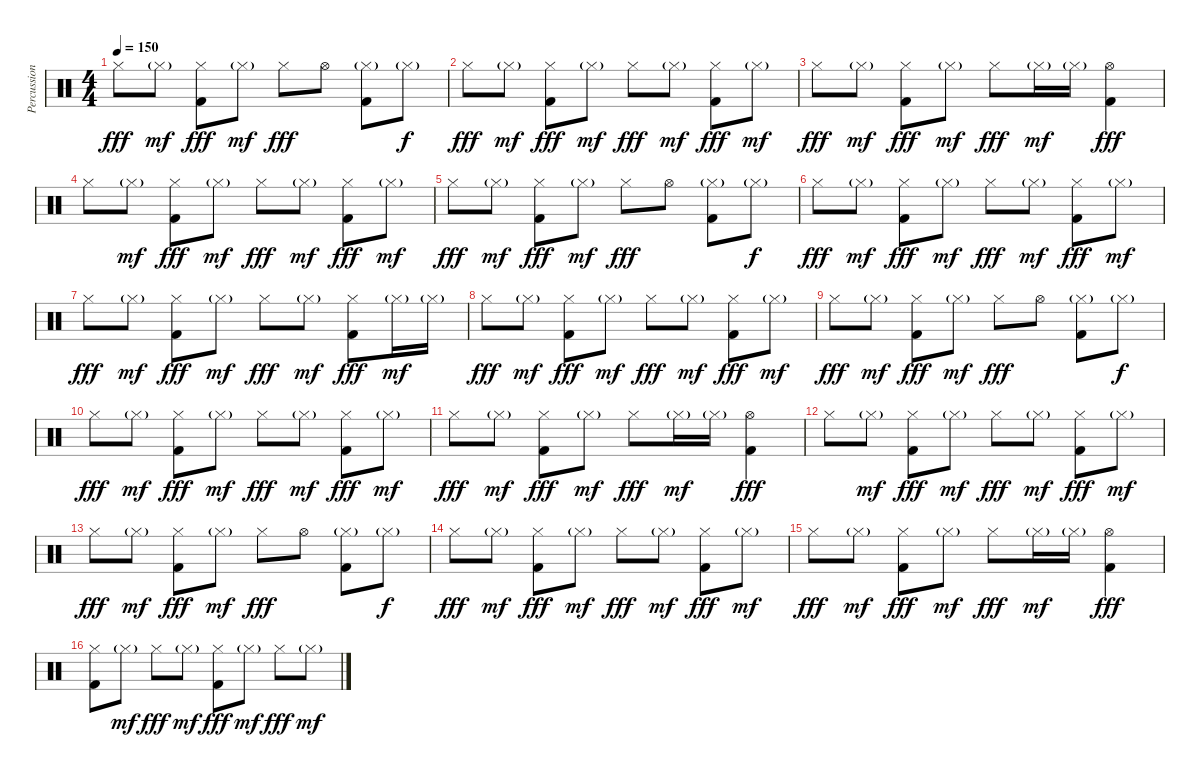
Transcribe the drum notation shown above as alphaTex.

\track ("Percussion" "Percussion") {instrument percussion}
\staff {score}
\articulation defaults
\ts (4 4)
\tempo 150
\clef neutral
\ks c "Hi-Hat (closed)".8{dy fff} "Hi-Hat (closed)"{g}.8{dy mf}
("Hi-Hat (closed)" "Kick (hit) 2").8{dy fff} "Hi-Hat (closed)"{g}.8{dy mf} "Hi-Hat (closed)".8{dy fff} "Hi-Hat (open)".8 ("Hi-Hat (closed)"{g} "Kick (hit) 2").8 "Hi-Hat (closed)"{g}.8{dy f} |
"Hi-Hat (closed)".8{dy fff} "Hi-Hat (closed)"{g}.8{dy mf} ("Hi-Hat (closed)" "Kick (hit) 2").8{dy fff} "Hi-Hat (closed)"{g}.8{dy mf} "Hi-Hat (closed)".8{dy fff} "Hi-Hat (closed)"{g}.8{dy mf} ("Hi-Hat (closed)" "Kick (hit) 2").8{dy fff} "Hi-Hat (closed)"{g}.8{dy mf} |
"Hi-Hat (closed)".8{dy fff} "Hi-Hat (closed)"{g}.8{dy mf} ("Hi-Hat (closed)" "Kick (hit) 2").8{dy fff} "Hi-Hat (closed)"{g}.8{dy mf} "Hi-Hat (closed)".8{dy fff} "Hi-Hat (closed)"{g}.16{dy mf} "Hi-Hat (closed)"{g}.16 ("Hi-Hat (open)" "Kick (hit) 2").4{dy fff} |
"Hi-Hat (closed)".8 "Hi-Hat (closed)"{g}.8{dy mf} ("Hi-Hat (closed)" "Kick (hit) 2").8{dy fff} "Hi-Hat (closed)"{g}.8{dy mf} "Hi-Hat (closed)".8{dy fff} "Hi-Hat (closed)"{g}.8{dy mf} ("Hi-Hat (closed)" "Kick (hit) 2").8{dy fff} "Hi-Hat (closed)"{g}.8{dy mf} |
"Hi-Hat (closed)".8{dy fff} "Hi-Hat (closed)"{g}.8{dy mf} ("Hi-Hat (closed)" "Kick (hit) 2").8{dy fff} "Hi-Hat (closed)"{g}.8{dy mf} "Hi-Hat (closed)".8{dy fff} "Hi-Hat (open)".8 ("Hi-Hat (closed)"{g} "Kick (hit) 2").8 "Hi-Hat (closed)"{g}.8{dy f} |
"Hi-Hat (closed)".8{dy fff} "Hi-Hat (closed)"{g}.8{dy mf} ("Hi-Hat (closed)" "Kick (hit) 2").8{dy fff} "Hi-Hat (closed)"{g}.8{dy mf} "Hi-Hat (closed)".8{dy fff} "Hi-Hat (closed)"{g}.8{dy mf} ("Hi-Hat (closed)" "Kick (hit) 2").8{dy fff} "Hi-Hat (closed)"{g}.8{dy mf} |
"Hi-Hat (closed)".8{dy fff} "Hi-Hat (closed)"{g}.8{dy mf} ("Hi-Hat (closed)" "Kick (hit) 2").8{dy fff} "Hi-Hat (closed)"{g}.8{dy mf} "Hi-Hat (closed)".8{dy fff} "Hi-Hat (closed)"{g}.8{dy mf} ("Hi-Hat (closed)" "Kick (hit) 2").8{dy fff} "Hi-Hat (closed)"{g}.16{dy mf} "Hi-Hat (closed)"{g}.16 |
"Hi-Hat (closed)".8{dy fff} "Hi-Hat (closed)"{g}.8{dy mf} ("Hi-Hat (closed)" "Kick (hit) 2").8{dy fff} "Hi-Hat (closed)"{g}.8{dy mf} "Hi-Hat (closed)".8{dy fff} "Hi-Hat (closed)"{g}.8{dy mf} ("Hi-Hat (closed)" "Kick (hit) 2").8{dy fff} "Hi-Hat (closed)"{g}.8{dy mf} |
"Hi-Hat (closed)".8{dy fff} "Hi-Hat (closed)"{g}.8{dy mf} ("Hi-Hat (closed)" "Kick (hit) 2").8{dy fff} "Hi-Hat (closed)"{g}.8{dy mf} "Hi-Hat (closed)".8{dy fff} "Hi-Hat (open)".8 ("Hi-Hat (closed)"{g} "Kick (hit) 2").8 "Hi-Hat (closed)"{g}.8{dy f} |
"Hi-Hat (closed)".8{dy fff} "Hi-Hat (closed)"{g}.8{dy mf} ("Hi-Hat (closed)" "Kick (hit) 2").8{dy fff} "Hi-Hat (closed)"{g}.8{dy mf} "Hi-Hat (closed)".8{dy fff} "Hi-Hat (closed)"{g}.8{dy mf} ("Hi-Hat (closed)" "Kick (hit) 2").8{dy fff} "Hi-Hat (closed)"{g}.8{dy mf} |
"Hi-Hat (closed)".8{dy fff} "Hi-Hat (closed)"{g}.8{dy mf} ("Hi-Hat (closed)" "Kick (hit) 2").8{dy fff} "Hi-Hat (closed)"{g}.8{dy mf} "Hi-Hat (closed)".8{dy fff} "Hi-Hat (closed)"{g}.16{dy mf} "Hi-Hat (closed)"{g}.16 ("Hi-Hat (open)" "Kick (hit) 2").4{dy fff} |
"Hi-Hat (closed)".8 "Hi-Hat (closed)"{g}.8{dy mf} ("Hi-Hat (closed)" "Kick (hit) 2").8{dy fff} "Hi-Hat (closed)"{g}.8{dy mf} "Hi-Hat (closed)".8{dy fff} "Hi-Hat (closed)"{g}.8{dy mf} ("Hi-Hat (closed)" "Kick (hit) 2").8{dy fff} "Hi-Hat (closed)"{g}.8{dy mf} |
"Hi-Hat (closed)".8{dy fff} "Hi-Hat (closed)"{g}.8{dy mf} ("Hi-Hat (closed)" "Kick (hit) 2").8{dy fff} "Hi-Hat (closed)"{g}.8{dy mf} "Hi-Hat (closed)".8{dy fff} "Hi-Hat (open)".8 ("Hi-Hat (closed)"{g} "Kick (hit) 2").8 "Hi-Hat (closed)"{g}.8{dy f} |
"Hi-Hat (closed)".8{dy fff} "Hi-Hat (closed)"{g}.8{dy mf} ("Hi-Hat (closed)" "Kick (hit) 2").8{dy fff} "Hi-Hat (closed)"{g}.8{dy mf} "Hi-Hat (closed)".8{dy fff} "Hi-Hat (closed)"{g}.8{dy mf} ("Hi-Hat (closed)" "Kick (hit) 2").8{dy fff} "Hi-Hat (closed)"{g}.8{dy mf} |
"Hi-Hat (closed)".8{dy fff} "Hi-Hat (closed)"{g}.8{dy mf} ("Hi-Hat (closed)" "Kick (hit) 2").8{dy fff} "Hi-Hat (closed)"{g}.8{dy mf} "Hi-Hat (closed)".8{dy fff} "Hi-Hat (closed)"{g}.16{dy mf} "Hi-Hat (closed)"{g}.16 ("Hi-Hat (open)" "Kick (hit) 2").4{dy fff} |
("Hi-Hat (closed)" "Kick (hit) 2").8 "Hi-Hat (closed)"{g}.8{dy mf} "Hi-Hat (closed)".8{dy fff} "Hi-Hat (closed)"{g}.8{dy mf} ("Hi-Hat (closed)" "Kick (hit) 2").8{dy fff} "Hi-Hat (closed)"{g}.8{dy mf} "Hi-Hat (closed)".8{dy fff} "Hi-Hat (closed)"{g}.8{dy mf}
